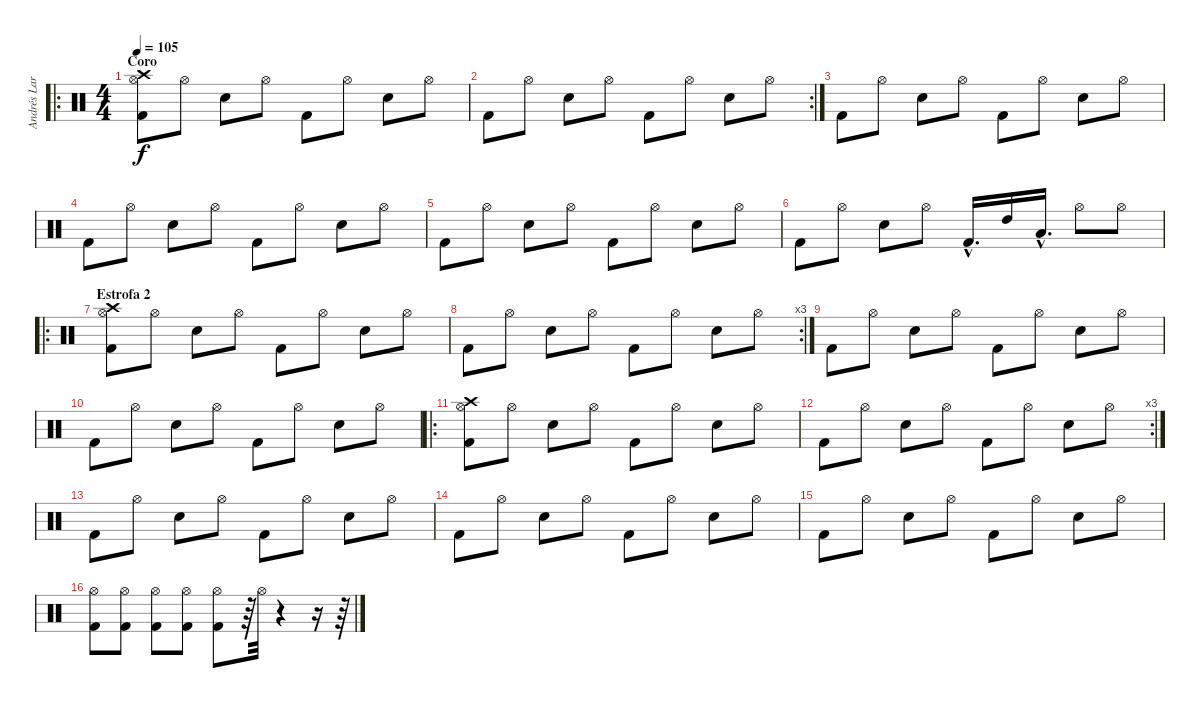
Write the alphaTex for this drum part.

\track ("Andrés Larraín (batería)" "Andrés Lar") {instrument percussion}
\staff {score}
\articulation defaults
\ro
\ts (4 4)
\section ("" "Coro")
\tempo 105
\clef neutral
\ks c
("Crash high (hit)" "Kick (hit) 2" "Hi-Hat (open)").8{dy f} "Hi-Hat (open)".8 "Snare (hit) 2".8 "Hi-Hat (open)".8 "Kick (hit) 2".8 "Hi-Hat (open)".8 "Snare (hit) 2".8 "Hi-Hat (open)".8 |
\rc 2 "Kick (hit) 2".8 "Hi-Hat (open)".8 "Snare (hit) 2".8 "Hi-Hat (open)".8 "Kick (hit) 2".8 "Hi-Hat (open)".8 "Snare (hit) 2".8 "Hi-Hat (open)".8
|
"Kick (hit) 2".8 "Hi-Hat (open)".8 "Snare (hit) 2".8 "Hi-Hat (open)".8 "Kick (hit) 2".8 "Hi-Hat (open)".8 "Snare (hit) 2".8 "Hi-Hat (open)".8 |
"Kick (hit) 2".8 "Hi-Hat (open)".8 "Snare (hit) 2".8 "Hi-Hat (open)".8 "Kick (hit) 2".8 "Hi-Hat (open)".8 "Snare (hit) 2".8 "Hi-Hat (open)".8 |
"Kick (hit) 2".8 "Hi-Hat (open)".8 "Snare (hit) 2".8 "Hi-Hat (open)".8 "Kick (hit) 2".8 "Hi-Hat (open)".8 "Snare (hit) 2".8 "Hi-Hat (open)".8 |
"Kick (hit) 2".8 "Hi-Hat (open)".8 "Snare (hit) 2".8 "Hi-Hat (open)".8 "Kick (hit) 2"{hac}.16{d} "High Tom (hit)".16 "Low Tom (hit)"{hac}.16{d} "Hi-Hat (open)".8 "Hi-Hat (open)".8 |
\ro
\section ("" "Estrofa 2")
("Crash high (hit)" "Hi-Hat (open)" "Kick (hit) 2").8 "Hi-Hat (open)".8 "Snare (hit) 2".8 "Hi-Hat (open)".8 "Kick (hit) 2".8 "Hi-Hat (open)".8 "Snare (hit) 2".8 "Hi-Hat (open)".8 |
\rc 3 "Kick (hit) 2".8 "Hi-Hat (open)".8 "Snare (hit) 2".8 "Hi-Hat (open)".8 "Kick (hit) 2".8 "Hi-Hat (open)".8 "Snare (hit) 2".8 "Hi-Hat (open)".8
|
"Kick (hit) 2".8 "Hi-Hat (open)".8 "Snare (hit) 2".8 "Hi-Hat (open)".8 "Kick (hit) 2".8 "Hi-Hat (open)".8 "Snare (hit) 2".8 "Hi-Hat (open)".8 |
"Kick (hit) 2".8 "Hi-Hat (open)".8 "Snare (hit) 2".8 "Hi-Hat (open)".8 "Kick (hit) 2".8 "Hi-Hat (open)".8 "Snare (hit) 2".8 "Hi-Hat (open)".8 |
\ro
("Crash high (hit)" "Hi-Hat (open)" "Kick (hit) 2").8 "Hi-Hat (open)".8 "Snare (hit) 2".8 "Hi-Hat (open)".8 "Kick (hit) 2".8 "Hi-Hat (open)".8 "Snare (hit) 2".8 "Hi-Hat (open)".8 |
\rc 3 "Kick (hit) 2".8 "Hi-Hat (open)".8 "Snare (hit) 2".8 "Hi-Hat (open)".8 "Kick (hit) 2".8 "Hi-Hat (open)".8 "Snare (hit) 2".8 "Hi-Hat (open)".8
|
"Kick (hit) 2".8 "Hi-Hat (open)".8 "Snare (hit) 2".8 "Hi-Hat (open)".8 "Kick (hit) 2".8 "Hi-Hat (open)".8 "Snare (hit) 2".8 "Hi-Hat (open)".8 |
"Kick (hit) 2".8 "Hi-Hat (open)".8 "Snare (hit) 2".8 "Hi-Hat (open)".8 "Kick (hit) 2".8 "Hi-Hat (open)".8 "Snare (hit) 2".8 "Hi-Hat (open)".8 |
"Kick (hit) 2".8 "Hi-Hat (open)".8 "Snare (hit) 2".8 "Hi-Hat (open)".8 "Kick (hit) 2".8 "Hi-Hat (open)".8 "Snare (hit) 2".8 "Hi-Hat (open)".8 |
("Hi-Hat (open)" "Kick (hit) 2").8 ("Hi-Hat (open)" "Kick (hit) 2").8 ("Hi-Hat (open)" "Kick (hit) 2").8 ("Hi-Hat (open)" "Kick (hit) 2").8 ("Hi-Hat (open)" "Kick (hit) 2").8 r.64 "Hi-Hat (open)".32 r.4 r.16 r.64
